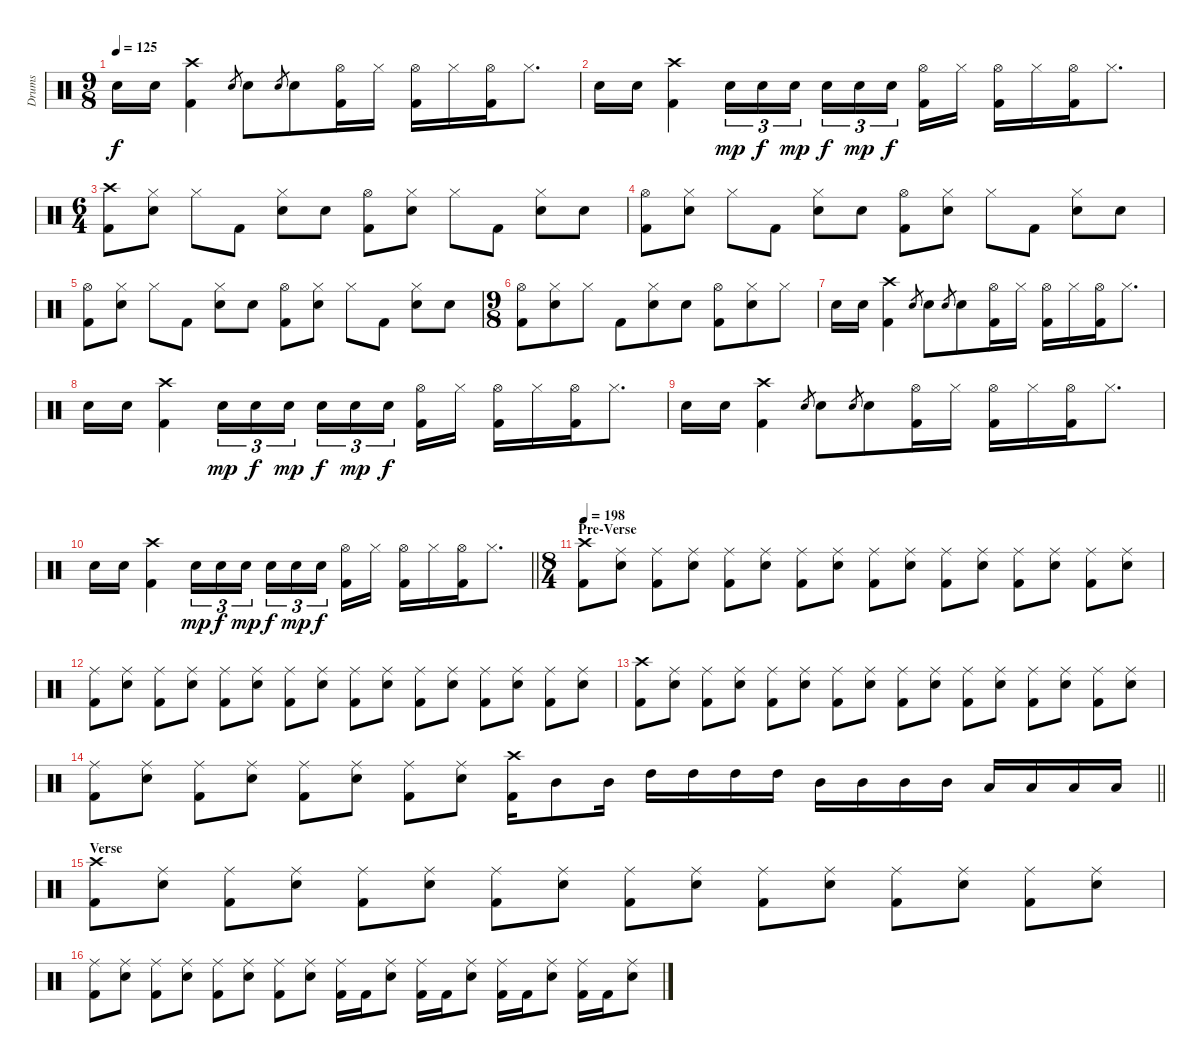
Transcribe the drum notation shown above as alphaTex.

\track ("Drums" "Drums") {instrument percussion}
\staff {score}
\articulation defaults
\ts (9 8)
\tempo 125
\clef neutral
\ks c "Snare (hit) 2".16{dy f} "Snare (hit) 2".16
("Crash high (hit)" "Kick (hit) 2").4 "Snare (hit) 2".8{gr} "Snare (hit) 2".8 "Snare (hit) 2".8{gr} "Snare (hit) 2".8 ("Hi-Hat (open)" "Kick (hit) 2").16 "Hi-Hat (closed)".16 ("Hi-Hat (open)" "Kick (hit) 2").16 "Hi-Hat (closed)".16 ("Hi-Hat (open)" "Kick (hit) 2").16 "Hi-Hat (closed)".8{d} |
"Snare (hit) 2".16 "Snare (hit) 2".16 ("Crash high (hit)" "Kick (hit) 2").4 "Snare (hit) 2".16{tu (3 2) dy mp} "Snare (hit) 2".16{tu (3 2) dy f} "Snare (hit) 2".16{tu (3 2) dy mp beam splitsecondary} "Snare (hit) 2".16{tu (3 2) dy f} "Snare (hit) 2".16{tu (3 2) dy mp} "Snare (hit) 2".16{tu (3 2) dy f beam splitsecondary} ("Hi-Hat (open)" "Kick (hit) 2").16 "Hi-Hat (closed)".16 ("Hi-Hat (open)" "Kick (hit) 2").16 "Hi-Hat (closed)".16 ("Hi-Hat (open)" "Kick (hit) 2").16 "Hi-Hat (closed)".8{d} |
\ts (6 4)
("Crash high (hit)" "Kick (hit) 2").8 ("Hi-Hat (closed)" "Snare (hit) 2").8 "Hi-Hat (closed)".8 "Kick (hit) 2".8 ("Hi-Hat (closed)" "Snare (hit) 2").8 "Snare (hit) 2".8 ("Hi-Hat (open)" "Kick (hit) 2").8 ("Hi-Hat (closed)" "Snare (hit) 2").8 "Hi-Hat (closed)".8 "Kick (hit) 2".8 ("Hi-Hat (closed)" "Snare (hit) 2").8 "Snare (hit) 2".8 |
("Hi-Hat (open)" "Kick (hit) 2").8 ("Hi-Hat (closed)" "Snare (hit) 2").8 "Hi-Hat (closed)".8 "Kick (hit) 2".8 ("Hi-Hat (closed)" "Snare (hit) 2").8 "Snare (hit) 2".8 ("Hi-Hat (open)" "Kick (hit) 2").8 ("Hi-Hat (closed)" "Snare (hit) 2").8 "Hi-Hat (closed)".8 "Kick (hit) 2".8 ("Hi-Hat (closed)" "Snare (hit) 2").8 "Snare (hit) 2".8 |
("Hi-Hat (open)" "Kick (hit) 2").8 ("Hi-Hat (closed)" "Snare (hit) 2").8 "Hi-Hat (closed)".8 "Kick (hit) 2".8 ("Hi-Hat (closed)" "Snare (hit) 2").8 "Snare (hit) 2".8 ("Hi-Hat (open)" "Kick (hit) 2").8 ("Hi-Hat (closed)" "Snare (hit) 2").8 "Hi-Hat (closed)".8 "Kick (hit) 2".8 ("Hi-Hat (closed)" "Snare (hit) 2").8 "Snare (hit) 2".8 |
\ts (9 8)
("Hi-Hat (open)" "Kick (hit) 2").8 ("Hi-Hat (closed)" "Snare (hit) 2").8 "Hi-Hat (closed)".8 "Kick (hit) 2".8 ("Hi-Hat (closed)" "Snare (hit) 2").8 "Snare (hit) 2".8 ("Hi-Hat (open)" "Kick (hit) 2").8 ("Hi-Hat (closed)" "Snare (hit) 2").8 "Hi-Hat (closed)".8 |
"Snare (hit) 2".16 "Snare (hit) 2".16 ("Crash high (hit)" "Kick (hit) 2").4 "Snare (hit) 2".8{gr} "Snare (hit) 2".8 "Snare (hit) 2".8{gr} "Snare (hit) 2".8 ("Hi-Hat (open)" "Kick (hit) 2").16 "Hi-Hat (closed)".16 ("Hi-Hat (open)" "Kick (hit) 2").16 "Hi-Hat (closed)".16 ("Hi-Hat (open)" "Kick (hit) 2").16 "Hi-Hat (closed)".8{d} |
"Snare (hit) 2".16 "Snare (hit) 2".16 ("Crash high (hit)" "Kick (hit) 2").4 "Snare (hit) 2".16{tu (3 2) dy mp} "Snare (hit) 2".16{tu (3 2) dy f} "Snare (hit) 2".16{tu (3 2) dy mp beam splitsecondary} "Snare (hit) 2".16{tu (3 2) dy f} "Snare (hit) 2".16{tu (3 2) dy mp} "Snare (hit) 2".16{tu (3 2) dy f beam splitsecondary} ("Hi-Hat (open)" "Kick (hit) 2").16 "Hi-Hat (closed)".16 ("Hi-Hat (open)" "Kick (hit) 2").16 "Hi-Hat (closed)".16 ("Hi-Hat (open)" "Kick (hit) 2").16 "Hi-Hat (closed)".8{d} |
"Snare (hit) 2".16 "Snare (hit) 2".16 ("Crash high (hit)" "Kick (hit) 2").4 "Snare (hit) 2".8{gr} "Snare (hit) 2".8 "Snare (hit) 2".8{gr} "Snare (hit) 2".8 ("Hi-Hat (open)" "Kick (hit) 2").16 "Hi-Hat (closed)".16 ("Hi-Hat (open)" "Kick (hit) 2").16 "Hi-Hat (closed)".16 ("Hi-Hat (open)" "Kick (hit) 2").16 "Hi-Hat (closed)".8{d} |
\barLineRight lightlight "Snare (hit) 2".16 "Snare (hit) 2".16
("Crash high (hit)" "Kick (hit) 2").4 "Snare (hit) 2".16{tu (3 2) dy mp} "Snare (hit) 2".16{tu (3 2) dy f} "Snare (hit) 2".16{tu (3 2) dy mp beam splitsecondary} "Snare (hit) 2".16{tu (3 2) dy f} "Snare (hit) 2".16{tu (3 2) dy mp} "Snare (hit) 2".16{tu (3 2) dy f beam splitsecondary} ("Hi-Hat (open)" "Kick (hit) 2").16 "Hi-Hat (closed)".16 ("Hi-Hat (open)" "Kick (hit) 2").16 "Hi-Hat (closed)".16 ("Hi-Hat (open)" "Kick (hit) 2").16 "Hi-Hat (closed)".8{d} |
\ts (8 4)
\section ("" "Pre-Verse")
\tempo 198
("Crash high (hit)" "Kick (hit) 2").8 ("Ride (middle)" "Snare (hit) 2").8 ("Ride (middle)" "Kick (hit) 2").8 ("Ride (middle)" "Snare (hit) 2").8 ("Ride (middle)" "Kick (hit) 2").8 ("Ride (middle)" "Snare (hit) 2").8 ("Ride (middle)" "Kick (hit) 2").8 ("Ride (middle)" "Snare (hit) 2").8 ("Ride (middle)" "Kick (hit) 2").8 ("Ride (middle)" "Snare (hit) 2").8 ("Ride (middle)" "Kick (hit) 2").8 ("Ride (middle)" "Snare (hit) 2").8 ("Ride (middle)" "Kick (hit) 2").8 ("Ride (middle)" "Snare (hit) 2").8 ("Ride (middle)" "Kick (hit) 2").8 ("Ride (middle)" "Snare (hit) 2").8 |
("Ride (middle)" "Kick (hit) 2").8 ("Ride (middle)" "Snare (hit) 2").8 ("Ride (middle)" "Kick (hit) 2").8 ("Ride (middle)" "Snare (hit) 2").8 ("Ride (middle)" "Kick (hit) 2").8 ("Ride (middle)" "Snare (hit) 2").8 ("Ride (middle)" "Kick (hit) 2").8 ("Ride (middle)" "Snare (hit) 2").8 ("Ride (middle)" "Kick (hit) 2").8 ("Ride (middle)" "Snare (hit) 2").8 ("Ride (middle)" "Kick (hit) 2").8 ("Ride (middle)" "Snare (hit) 2").8 ("Ride (middle)" "Kick (hit) 2").8 ("Ride (middle)" "Snare (hit) 2").8 ("Ride (middle)" "Kick (hit) 2").8 ("Ride (middle)" "Snare (hit) 2").8 |
("Crash high (hit)" "Kick (hit) 2").8 ("Ride (middle)" "Snare (hit) 2").8 ("Ride (middle)" "Kick (hit) 2").8 ("Ride (middle)" "Snare (hit) 2").8 ("Ride (middle)" "Kick (hit) 2").8 ("Ride (middle)" "Snare (hit) 2").8 ("Ride (middle)" "Kick (hit) 2").8 ("Ride (middle)" "Snare (hit) 2").8 ("Ride (middle)" "Kick (hit) 2").8 ("Ride (middle)" "Snare (hit) 2").8 ("Ride (middle)" "Kick (hit) 2").8 ("Ride (middle)" "Snare (hit) 2").8 ("Ride (middle)" "Kick (hit) 2").8 ("Ride (middle)" "Snare (hit) 2").8 ("Ride (middle)" "Kick (hit) 2").8 ("Ride (middle)" "Snare (hit) 2").8 |
\barLineRight lightlight
("Ride (middle)" "Kick (hit) 2").8 ("Ride (middle)" "Snare (hit) 2").8 ("Ride (middle)" "Kick (hit) 2").8 ("Ride (middle)" "Snare (hit) 2").8 ("Ride (middle)" "Kick (hit) 2").8 ("Ride (middle)" "Snare (hit) 2").8 ("Ride (middle)" "Kick (hit) 2").8 ("Ride (middle)" "Snare (hit) 2").8 ("Crash high (hit)" "Kick (hit) 2").16 "Mid Tom (hit)".8 "Mid Tom (hit)".16 "High Tom (hit)".16 "High Tom (hit)".16 "High Tom (hit)".16 "High Tom (hit)".16 "Mid Tom (hit)".16 "Mid Tom (hit)".16 "Mid Tom (hit)".16 "Mid Tom (hit)".16 "Low Tom (hit)".16 "Low Tom (hit)".16 "Low Tom (hit)".16 "Low Tom (hit)".16 |
\section ("" "Verse")
("Crash high (hit)" "Kick (hit) 2").8 ("Ride (middle)" "Snare (hit) 2").8 ("Ride (middle)" "Kick (hit) 2").8 ("Ride (middle)" "Snare (hit) 2").8 ("Ride (middle)" "Kick (hit) 2").8 ("Ride (middle)" "Snare (hit) 2").8 ("Ride (middle)" "Kick (hit) 2").8 ("Ride (middle)" "Snare (hit) 2").8 ("Ride (middle)" "Kick (hit) 2").8 ("Ride (middle)" "Snare (hit) 2").8 ("Ride (middle)" "Kick (hit) 2").8 ("Ride (middle)" "Snare (hit) 2").8 ("Ride (middle)" "Kick (hit) 2").8 ("Ride (middle)" "Snare (hit) 2").8 ("Ride (middle)" "Kick (hit) 2").8 ("Ride (middle)" "Snare (hit) 2").8 |
("Ride (middle)" "Kick (hit) 2").8 ("Ride (middle)" "Snare (hit) 2").8 ("Ride (middle)" "Kick (hit) 2").8 ("Ride (middle)" "Snare (hit) 2").8 ("Ride (middle)" "Kick (hit) 2").8 ("Ride (middle)" "Snare (hit) 2").8 ("Ride (middle)" "Kick (hit) 2").8 ("Ride (middle)" "Snare (hit) 2").8 ("Ride (middle)" "Kick (hit) 2").16 "Kick (hit) 2".16 ("Ride (middle)" "Snare (hit) 2").8 ("Ride (middle)" "Kick (hit) 2").16 "Kick (hit) 2".16 ("Ride (middle)" "Snare (hit) 2").8 ("Ride (middle)" "Kick (hit) 2").16 "Kick (hit) 2".16 ("Ride (middle)" "Snare (hit) 2").8 ("Ride (middle)" "Kick (hit) 2").16 "Kick (hit) 2".16 ("Ride (middle)" "Snare (hit) 2").8
